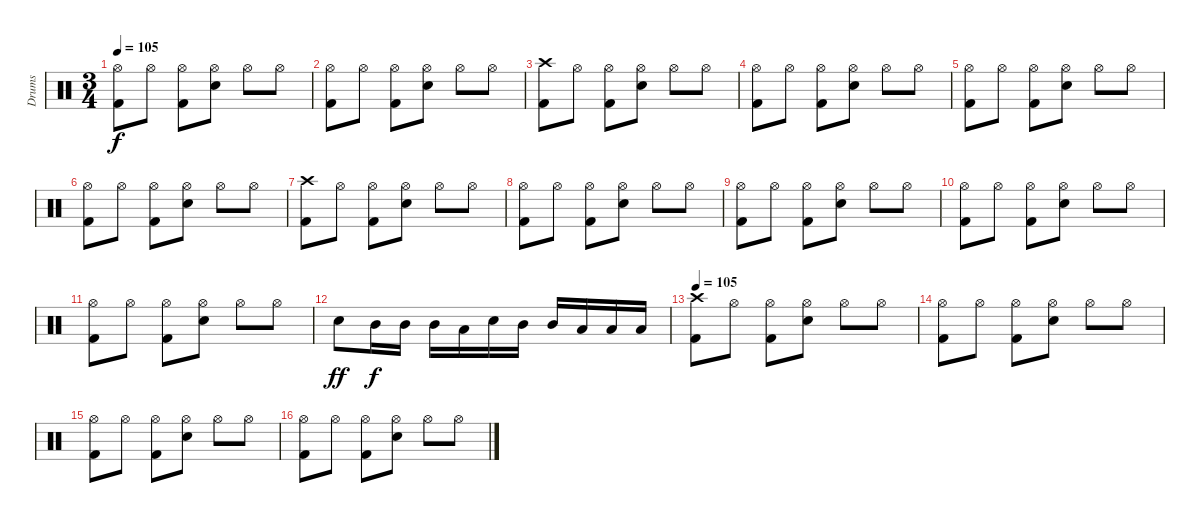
\track ("Drums" "Drums") {instrument percussion}
\staff {score}
\articulation defaults
\ts (3 4)
\tempo 105
\clef neutral
\ks c
("Hi-Hat (open)" "Kick (hit) 2").8{dy f} "Hi-Hat (open)".8 ("Hi-Hat (open)" "Kick (hit) 2").8 ("Hi-Hat (open)" "Snare (hit) 2").8 "Hi-Hat (open)".8 "Hi-Hat (open)".8 |
("Hi-Hat (open)" "Kick (hit) 2").8 "Hi-Hat (open)".8 ("Hi-Hat (open)" "Kick (hit) 2").8 ("Hi-Hat (open)" "Snare (hit) 2").8 "Hi-Hat (open)".8 "Hi-Hat (open)".8 |
("Crash high (hit)" "Kick (hit) 2").8 "Hi-Hat (open)".8 ("Hi-Hat (open)" "Kick (hit) 2").8 ("Hi-Hat (open)" "Snare (hit) 2").8 "Hi-Hat (open)".8 "Hi-Hat (open)".8 |
("Hi-Hat (open)" "Kick (hit) 2").8 "Hi-Hat (open)".8 ("Hi-Hat (open)" "Kick (hit) 2").8 ("Hi-Hat (open)" "Snare (hit) 2").8 "Hi-Hat (open)".8 "Hi-Hat (open)".8 |
("Hi-Hat (open)" "Kick (hit) 2").8 "Hi-Hat (open)".8 ("Hi-Hat (open)" "Kick (hit) 2").8 ("Hi-Hat (open)" "Snare (hit) 2").8 "Hi-Hat (open)".8 "Hi-Hat (open)".8 |
("Hi-Hat (open)" "Kick (hit) 2").8 "Hi-Hat (open)".8 ("Hi-Hat (open)" "Kick (hit) 2").8 ("Hi-Hat (open)" "Snare (hit) 2").8 "Hi-Hat (open)".8 "Hi-Hat (open)".8 |
("Crash high (hit)" "Kick (hit) 2").8 "Hi-Hat (open)".8 ("Hi-Hat (open)" "Kick (hit) 2").8 ("Hi-Hat (open)" "Snare (hit) 2").8 "Hi-Hat (open)".8 "Hi-Hat (open)".8 |
("Hi-Hat (open)" "Kick (hit) 2").8 "Hi-Hat (open)".8 ("Hi-Hat (open)" "Kick (hit) 2").8 ("Hi-Hat (open)" "Snare (hit) 2").8 "Hi-Hat (open)".8 "Hi-Hat (open)".8 |
("Hi-Hat (open)" "Kick (hit) 2").8 "Hi-Hat (open)".8 ("Hi-Hat (open)" "Kick (hit) 2").8 ("Hi-Hat (open)" "Snare (hit) 2").8 "Hi-Hat (open)".8 "Hi-Hat (open)".8 |
("Hi-Hat (open)" "Kick (hit) 2").8 "Hi-Hat (open)".8 ("Hi-Hat (open)" "Kick (hit) 2").8 ("Hi-Hat (open)" "Snare (hit) 2").8 "Hi-Hat (open)".8 "Hi-Hat (open)".8 |
("Hi-Hat (open)" "Kick (hit) 2").8 "Hi-Hat (open)".8 ("Hi-Hat (open)" "Kick (hit) 2").8 ("Hi-Hat (open)" "Snare (hit) 2").8 "Hi-Hat (open)".8 "Hi-Hat (open)".8 |
"Snare (hit) 2".8{dy ff} "Mid Tom (hit)".16{dy f} "Mid Tom (hit)".16 "Mid Tom (hit)".16 "Low Tom (hit)".16 "Snare (hit) 2".16 "Mid Tom (hit)".16 "Mid Tom (hit)".16 "Low Tom (hit)".16 "Low Tom (hit)".16 "Low Tom (hit)".16 |
\tempo 105
("Crash high (hit)" "Kick (hit) 2").8 "Hi-Hat (open)".8 ("Hi-Hat (open)" "Kick (hit) 2").8 ("Hi-Hat (open)" "Snare (hit) 2").8 "Hi-Hat (open)".8 "Hi-Hat (open)".8 |
("Hi-Hat (open)" "Kick (hit) 2").8 "Hi-Hat (open)".8 ("Hi-Hat (open)" "Kick (hit) 2").8 ("Hi-Hat (open)" "Snare (hit) 2").8 "Hi-Hat (open)".8 "Hi-Hat (open)".8 |
("Hi-Hat (open)" "Kick (hit) 2").8 "Hi-Hat (open)".8 ("Hi-Hat (open)" "Kick (hit) 2").8 ("Hi-Hat (open)" "Snare (hit) 2").8 "Hi-Hat (open)".8 "Hi-Hat (open)".8 |
("Hi-Hat (open)" "Kick (hit) 2").8 "Hi-Hat (open)".8 ("Hi-Hat (open)" "Kick (hit) 2").8 ("Hi-Hat (open)" "Snare (hit) 2").8 "Hi-Hat (open)".8 "Hi-Hat (open)".8
